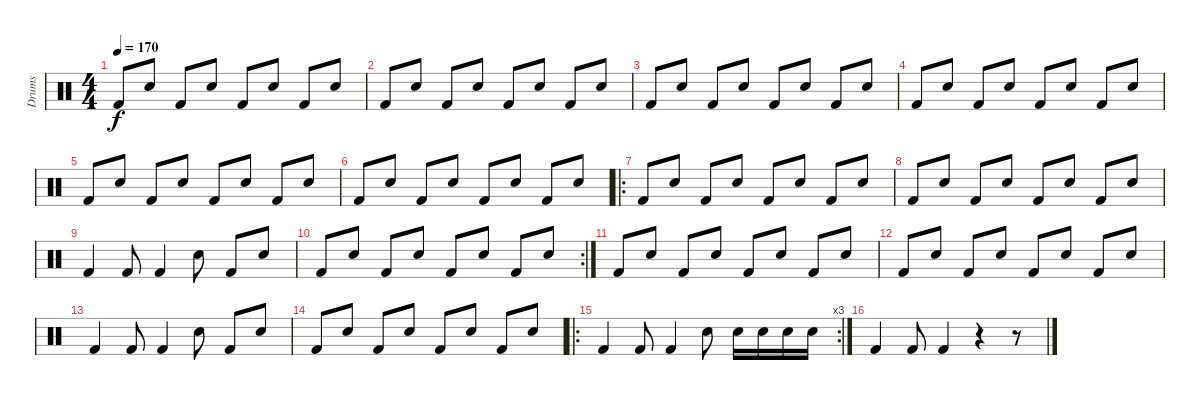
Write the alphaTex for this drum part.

\track ("Drums" "Drums") {instrument percussion}
\staff {score}
\articulation defaults
\ts (4 4)
\tempo 170
\clef neutral
\ks c "Kick (hit) 2".8{dy f} "Snare (hit) 2".8 "Kick (hit) 2".8 "Snare (hit) 2".8 "Kick (hit) 2".8 "Snare (hit) 2".8 "Kick (hit) 2".8 "Snare (hit) 2".8
|
"Kick (hit) 2".8 "Snare (hit) 2".8 "Kick (hit) 2".8 "Snare (hit) 2".8 "Kick (hit) 2".8 "Snare (hit) 2".8 "Kick (hit) 2".8 "Snare (hit) 2".8 |
"Kick (hit) 2".8 "Snare (hit) 2".8 "Kick (hit) 2".8 "Snare (hit) 2".8 "Kick (hit) 2".8 "Snare (hit) 2".8 "Kick (hit) 2".8 "Snare (hit) 2".8 |
"Kick (hit) 2".8 "Snare (hit) 2".8 "Kick (hit) 2".8 "Snare (hit) 2".8 "Kick (hit) 2".8 "Snare (hit) 2".8 "Kick (hit) 2".8 "Snare (hit) 2".8 |
"Kick (hit) 2".8 "Snare (hit) 2".8 "Kick (hit) 2".8 "Snare (hit) 2".8 "Kick (hit) 2".8 "Snare (hit) 2".8 "Kick (hit) 2".8 "Snare (hit) 2".8 |
"Kick (hit) 2".8 "Snare (hit) 2".8 "Kick (hit) 2".8 "Snare (hit) 2".8 "Kick (hit) 2".8 "Snare (hit) 2".8 "Kick (hit) 2".8 "Snare (hit) 2".8 |
\ro "Kick (hit) 2".8 "Snare (hit) 2".8 "Kick (hit) 2".8 "Snare (hit) 2".8 "Kick (hit) 2".8 "Snare (hit) 2".8 "Kick (hit) 2".8 "Snare (hit) 2".8
|
"Kick (hit) 2".8 "Snare (hit) 2".8 "Kick (hit) 2".8 "Snare (hit) 2".8 "Kick (hit) 2".8 "Snare (hit) 2".8 "Kick (hit) 2".8 "Snare (hit) 2".8 |
"Kick (hit) 2".4 "Kick (hit) 2".8 "Kick (hit) 2".4 "Snare (hit) 2".8 "Kick (hit) 2".8 "Snare (hit) 2".8 |
\rc 2 "Kick (hit) 2".8 "Snare (hit) 2".8 "Kick (hit) 2".8 "Snare (hit) 2".8 "Kick (hit) 2".8 "Snare (hit) 2".8 "Kick (hit) 2".8 "Snare (hit) 2".8
|
"Kick (hit) 2".8 "Snare (hit) 2".8 "Kick (hit) 2".8 "Snare (hit) 2".8 "Kick (hit) 2".8 "Snare (hit) 2".8 "Kick (hit) 2".8 "Snare (hit) 2".8 |
"Kick (hit) 2".8 "Snare (hit) 2".8 "Kick (hit) 2".8 "Snare (hit) 2".8 "Kick (hit) 2".8 "Snare (hit) 2".8 "Kick (hit) 2".8 "Snare (hit) 2".8 |
"Kick (hit) 2".4 "Kick (hit) 2".8 "Kick (hit) 2".4 "Snare (hit) 2".8 "Kick (hit) 2".8 "Snare (hit) 2".8 |
"Kick (hit) 2".8 "Snare (hit) 2".8 "Kick (hit) 2".8 "Snare (hit) 2".8 "Kick (hit) 2".8 "Snare (hit) 2".8 "Kick (hit) 2".8 "Snare (hit) 2".8 |
\ro
\rc 3 "Kick (hit) 2".4 "Kick (hit) 2".8 "Kick (hit) 2".4 "Snare (hit) 2".8 "Snare (hit) 2".16 "Snare (hit) 2".16 "Snare (hit) 2".16 "Snare (hit) 2".16
|
"Kick (hit) 2".4 "Kick (hit) 2".8 "Kick (hit) 2".4 r.4 r.8
